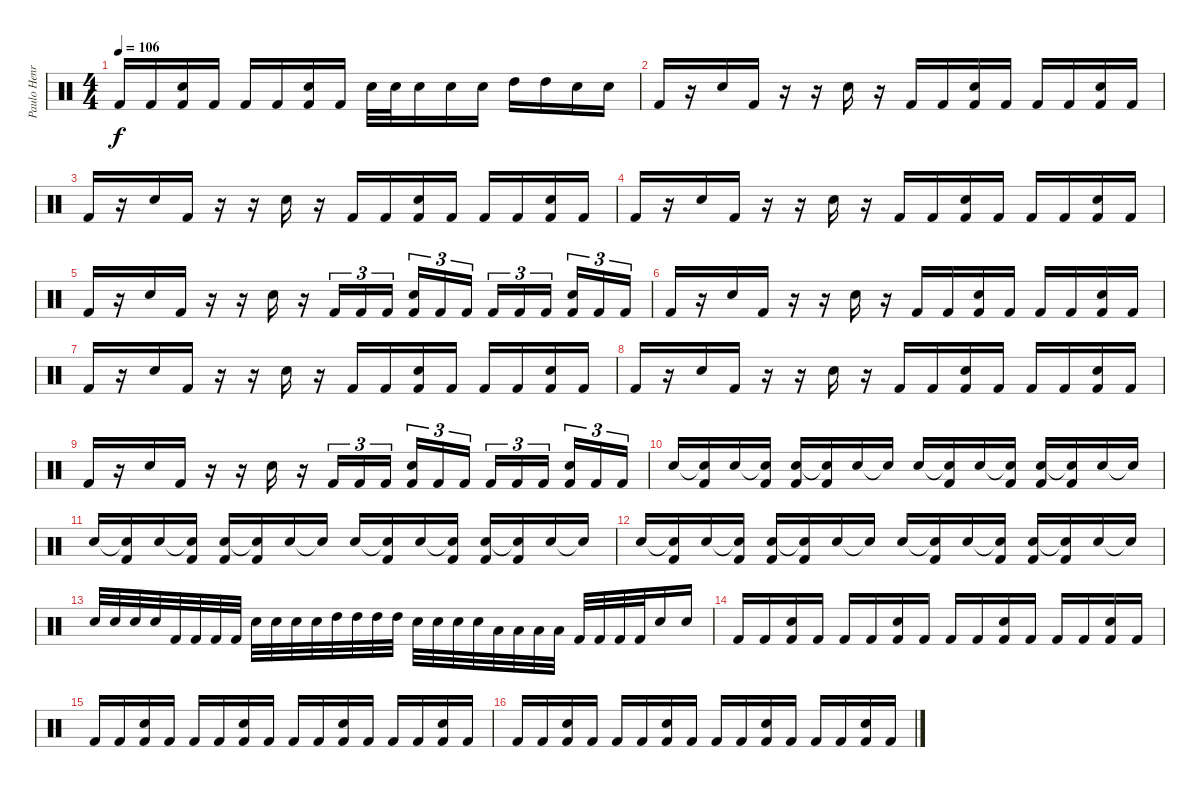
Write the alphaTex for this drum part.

\track ("Paulo Henrique" "Paulo Henr") {instrument percussion}
\staff {score}
\articulation defaults
\ts (4 4)
\tempo 106
\clef neutral
\ks c "Kick (hit) 2".16{dy f} "Kick (hit) 2".16
("Electric Snare (hit)" "Kick (hit) 2").16 "Kick (hit) 2".16 "Kick (hit) 2".16 "Kick (hit) 2".16 ("Electric Snare (hit)" "Kick (hit) 2").16 "Kick (hit) 2".16 "Electric Snare (hit)".32 "Electric Snare (hit)".32 "Electric Snare (hit)".16 "Electric Snare (hit)".16 "Electric Snare (hit)".16 "High Tom (hit)".16 "High Tom (hit)".16 "Electric Snare (hit)".16 "Electric Snare (hit)".16 |
"Kick (hit) 2".16 r.16 "Electric Snare (hit)".16 "Kick (hit) 2".16 r.16 r.16 "Electric Snare (hit)".16 r.16 "Kick (hit) 2".16 "Kick (hit) 2".16 ("Electric Snare (hit)" "Kick (hit) 2").16 "Kick (hit) 2".16 "Kick (hit) 2".16 "Kick (hit) 2".16 ("Electric Snare (hit)" "Kick (hit) 2").16 "Kick (hit) 2".16 |
"Kick (hit) 2".16 r.16 "Electric Snare (hit)".16 "Kick (hit) 2".16 r.16 r.16 "Electric Snare (hit)".16 r.16 "Kick (hit) 2".16 "Kick (hit) 2".16 ("Electric Snare (hit)" "Kick (hit) 2").16 "Kick (hit) 2".16 "Kick (hit) 2".16 "Kick (hit) 2".16 ("Electric Snare (hit)" "Kick (hit) 2").16 "Kick (hit) 2".16 |
"Kick (hit) 2".16 r.16 "Electric Snare (hit)".16 "Kick (hit) 2".16 r.16 r.16 "Electric Snare (hit)".16 r.16 "Kick (hit) 2".16 "Kick (hit) 2".16 ("Electric Snare (hit)" "Kick (hit) 2").16 "Kick (hit) 2".16 "Kick (hit) 2".16 "Kick (hit) 2".16 ("Electric Snare (hit)" "Kick (hit) 2").16 "Kick (hit) 2".16 |
"Kick (hit) 2".16 r.16 "Electric Snare (hit)".16 "Kick (hit) 2".16 r.16 r.16 "Electric Snare (hit)".16 r.16 "Kick (hit) 2".16{tu (3 2)} "Kick (hit) 2".16{tu (3 2)} "Kick (hit) 2".16{tu (3 2)} ("Electric Snare (hit)" "Kick (hit) 2").16{tu (3 2)} "Kick (hit) 2".16{tu (3 2)} "Kick (hit) 2".16{tu (3 2)} "Kick (hit) 2".16{tu (3 2)} "Kick (hit) 2".16{tu (3 2)} "Kick (hit) 2".16{tu (3 2)} ("Electric Snare (hit)" "Kick (hit) 2").16{tu (3 2)} "Kick (hit) 2".16{tu (3 2)} "Kick (hit) 2".16{tu (3 2)} |
"Kick (hit) 2".16 r.16 "Electric Snare (hit)".16 "Kick (hit) 2".16 r.16 r.16 "Electric Snare (hit)".16 r.16 "Kick (hit) 2".16 "Kick (hit) 2".16 ("Electric Snare (hit)" "Kick (hit) 2").16 "Kick (hit) 2".16 "Kick (hit) 2".16 "Kick (hit) 2".16 ("Electric Snare (hit)" "Kick (hit) 2").16 "Kick (hit) 2".16 |
"Kick (hit) 2".16 r.16 "Electric Snare (hit)".16 "Kick (hit) 2".16 r.16 r.16 "Electric Snare (hit)".16 r.16 "Kick (hit) 2".16 "Kick (hit) 2".16 ("Electric Snare (hit)" "Kick (hit) 2").16 "Kick (hit) 2".16 "Kick (hit) 2".16 "Kick (hit) 2".16 ("Electric Snare (hit)" "Kick (hit) 2").16 "Kick (hit) 2".16 |
"Kick (hit) 2".16 r.16 "Electric Snare (hit)".16 "Kick (hit) 2".16 r.16 r.16 "Electric Snare (hit)".16 r.16 "Kick (hit) 2".16 "Kick (hit) 2".16 ("Electric Snare (hit)" "Kick (hit) 2").16 "Kick (hit) 2".16 "Kick (hit) 2".16 "Kick (hit) 2".16 ("Electric Snare (hit)" "Kick (hit) 2").16 "Kick (hit) 2".16 |
"Kick (hit) 2".16 r.16 "Electric Snare (hit)".16 "Kick (hit) 2".16 r.16 r.16 "Electric Snare (hit)".16 r.16 "Kick (hit) 2".16{tu (3 2)} "Kick (hit) 2".16{tu (3 2)} "Kick (hit) 2".16{tu (3 2)} ("Electric Snare (hit)" "Kick (hit) 2").16{tu (3 2)} "Kick (hit) 2".16{tu (3 2)} "Kick (hit) 2".16{tu (3 2)} "Kick (hit) 2".16{tu (3 2)} "Kick (hit) 2".16{tu (3 2)} "Kick (hit) 2".16{tu (3 2)} ("Electric Snare (hit)" "Kick (hit) 2").16{tu (3 2)} "Kick (hit) 2".16{tu (3 2)} "Kick (hit) 2".16{tu (3 2)} |
"Electric Snare (hit)".16 ("Snare (hit)"{t} "Kick (hit) 2").16 "Electric Snare (hit)".16 ("Snare (hit)"{t} "Kick (hit) 2").16 ("Electric Snare (hit)" "Kick (hit) 2").16 ("Snare (hit)"{t} "Kick (hit) 2").16 "Electric Snare (hit)".16 "Snare (hit)"{t}.16 "Electric Snare (hit)".16 ("Snare (hit)"{t} "Kick (hit) 2").16 "Electric Snare (hit)".16 ("Snare (hit)"{t} "Kick (hit) 2").16 ("Electric Snare (hit)" "Kick (hit) 2").16 ("Snare (hit)"{t} "Kick (hit) 2").16 "Electric Snare (hit)".16 "Snare (hit)"{t}.16 |
"Electric Snare (hit)".16 ("Snare (hit)"{t} "Kick (hit) 2").16 "Electric Snare (hit)".16 ("Snare (hit)"{t} "Kick (hit) 2").16 ("Electric Snare (hit)" "Kick (hit) 2").16 ("Snare (hit)"{t} "Kick (hit) 2").16 "Electric Snare (hit)".16 "Snare (hit)"{t}.16 "Electric Snare (hit)".16 ("Snare (hit)"{t} "Kick (hit) 2").16 "Electric Snare (hit)".16 ("Snare (hit)"{t} "Kick (hit) 2").16 ("Electric Snare (hit)" "Kick (hit) 2").16 ("Snare (hit)"{t} "Kick (hit) 2").16 "Electric Snare (hit)".16 "Snare (hit)"{t}.16 |
"Electric Snare (hit)".16 ("Snare (hit)"{t} "Kick (hit) 2").16 "Electric Snare (hit)".16 ("Snare (hit)"{t} "Kick (hit) 2").16 ("Electric Snare (hit)" "Kick (hit) 2").16 ("Snare (hit)"{t} "Kick (hit) 2").16 "Electric Snare (hit)".16 "Snare (hit)"{t}.16 "Electric Snare (hit)".16 ("Snare (hit)"{t} "Kick (hit) 2").16 "Electric Snare (hit)".16 ("Snare (hit)"{t} "Kick (hit) 2").16 ("Electric Snare (hit)" "Kick (hit) 2").16 ("Snare (hit)"{t} "Kick (hit) 2").16 "Electric Snare (hit)".16 "Snare (hit)"{t}.16 |
"Electric Snare (hit)".32 "Electric Snare (hit)".32 "Electric Snare (hit)".32 "Electric Snare (hit)".32 "Kick (hit) 2".32 "Kick (hit) 2".32 "Kick (hit) 2".32 "Kick (hit) 2".32 "Electric Snare (hit)".32 "Electric Snare (hit)".32 "Electric Snare (hit)".32 "Electric Snare (hit)".32 "High Tom (hit)".32 "High Tom (hit)".32 "High Tom (hit)".32 "High Tom (hit)".32 "Electric Snare (hit)".32 "Electric Snare (hit)".32 "Electric Snare (hit)".32 "Electric Snare (hit)".32 "Low Tom (hit)".32 "Low Tom (hit)".32 "Low Tom (hit)".32 "Low Tom (hit)".32 "Kick (hit) 2".32 "Kick (hit) 2".32 "Kick (hit) 2".32 "Kick (hit) 2".32 "Electric Snare (hit)".16 "Electric Snare (hit)".16 |
"Kick (hit) 2".16 "Kick (hit) 2".16 ("Electric Snare (hit)" "Kick (hit) 2").16 "Kick (hit) 2".16 "Kick (hit) 2".16 "Kick (hit) 2".16 ("Electric Snare (hit)" "Kick (hit) 2").16 "Kick (hit) 2".16 "Kick (hit) 2".16 "Kick (hit) 2".16 ("Electric Snare (hit)" "Kick (hit) 2").16 "Kick (hit) 2".16 "Kick (hit) 2".16 "Kick (hit) 2".16 ("Electric Snare (hit)" "Kick (hit) 2").16 "Kick (hit) 2".16 |
"Kick (hit) 2".16 "Kick (hit) 2".16 ("Electric Snare (hit)" "Kick (hit) 2").16 "Kick (hit) 2".16 "Kick (hit) 2".16 "Kick (hit) 2".16 ("Electric Snare (hit)" "Kick (hit) 2").16 "Kick (hit) 2".16 "Kick (hit) 2".16 "Kick (hit) 2".16 ("Electric Snare (hit)" "Kick (hit) 2").16 "Kick (hit) 2".16 "Kick (hit) 2".16 "Kick (hit) 2".16 ("Electric Snare (hit)" "Kick (hit) 2").16 "Kick (hit) 2".16 |
"Kick (hit) 2".16 "Kick (hit) 2".16 ("Electric Snare (hit)" "Kick (hit) 2").16 "Kick (hit) 2".16 "Kick (hit) 2".16 "Kick (hit) 2".16 ("Electric Snare (hit)" "Kick (hit) 2").16 "Kick (hit) 2".16 "Kick (hit) 2".16 "Kick (hit) 2".16 ("Electric Snare (hit)" "Kick (hit) 2").16 "Kick (hit) 2".16 "Kick (hit) 2".16 "Kick (hit) 2".16 ("Electric Snare (hit)" "Kick (hit) 2").16 "Kick (hit) 2".16
